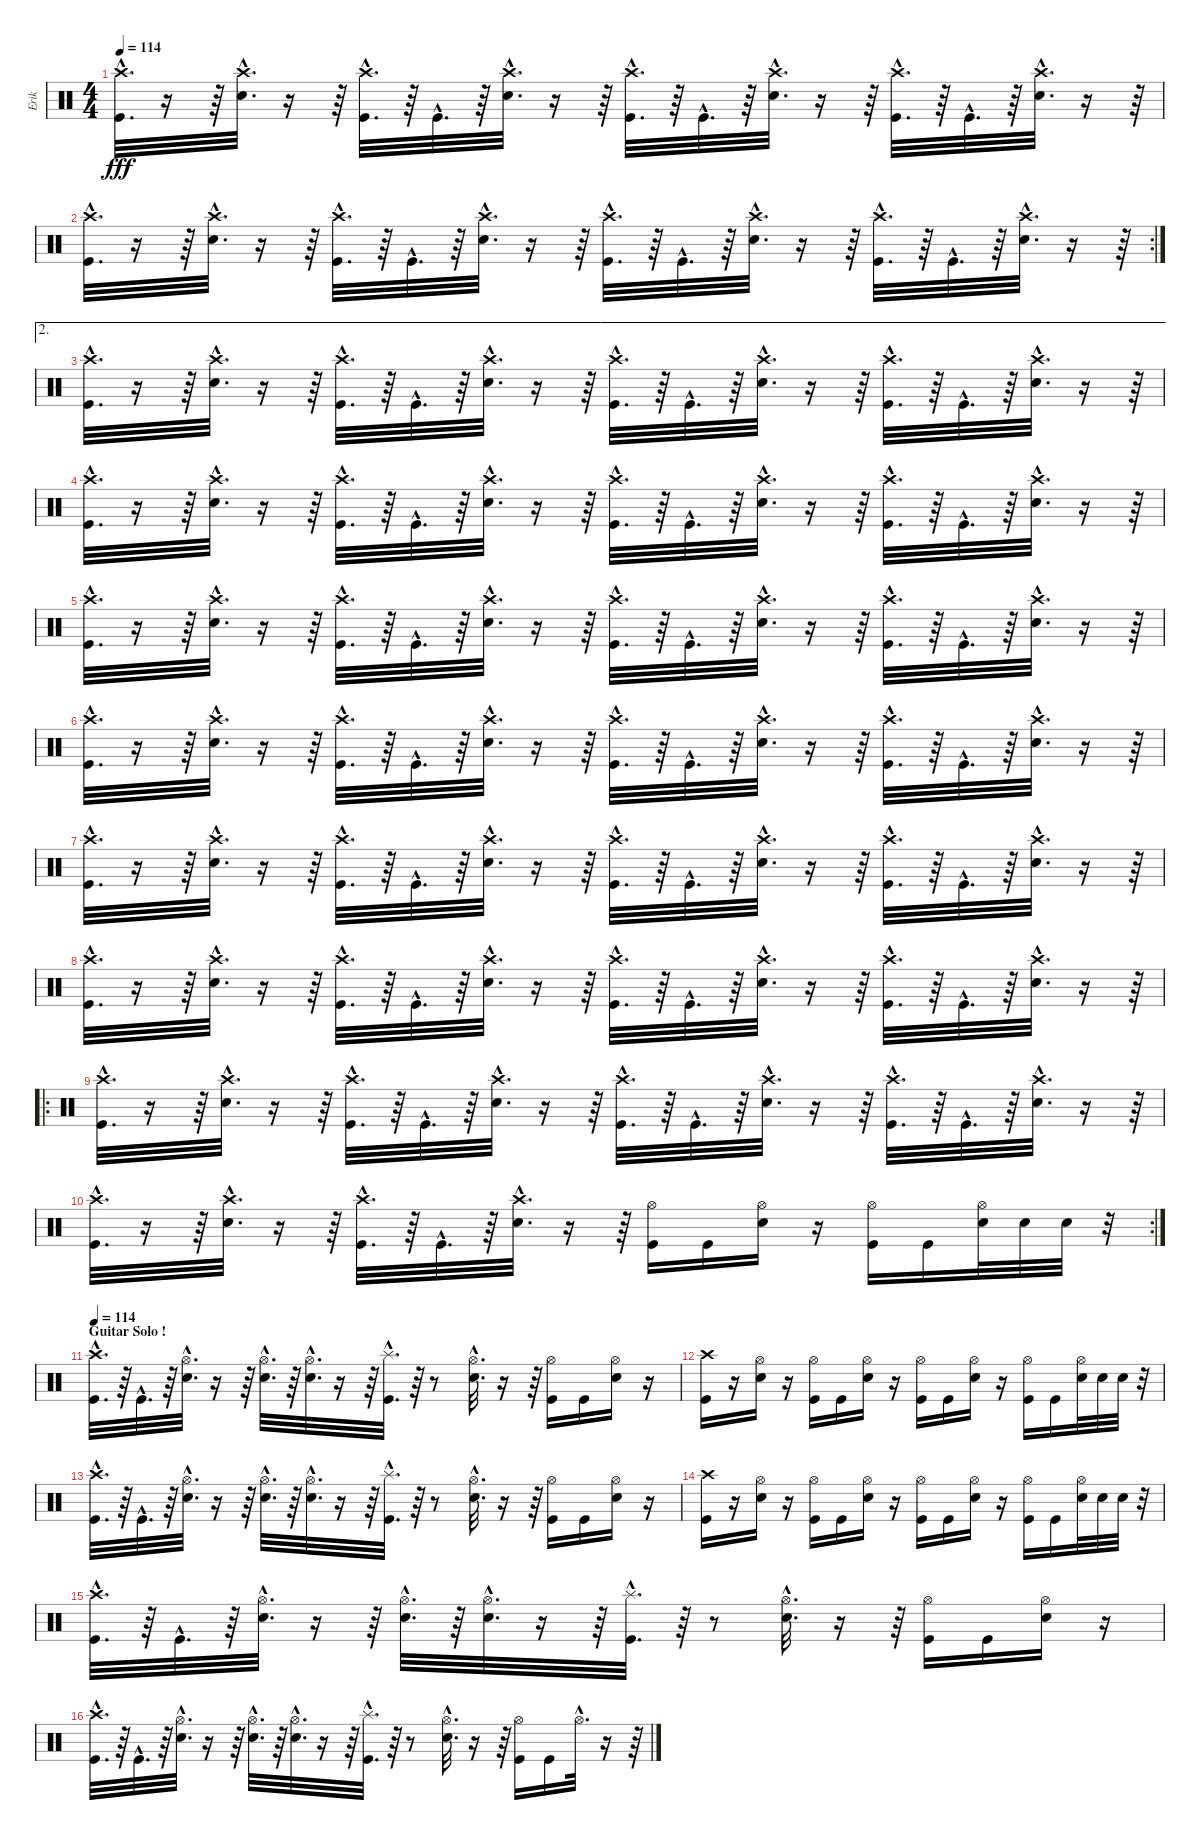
\track ("Erik" "Erik") {instrument percussion}
\staff {score}
\articulation defaults
\ts (4 4)
\tempo 114
\clef neutral
\ks c
("Kick (hit)"{hac} "Crash high (hit)"{hac}).32{d dy fff} r.16 r.64 ("Electric Snare (hit)"{hac} "Crash high (hit)"{hac}).32{d} r.16 r.64 ("Kick (hit)"{hac} "Crash high (hit)"{hac}).32{d} r.64 "Kick (hit)"{hac}.32{d} r.64 ("Electric Snare (hit)"{hac} "Crash high (hit)"{hac}).32{d} r.16 r.64 ("Crash high (hit)"{hac} "Kick (hit)"{hac}).32{d} r.64 "Kick (hit)"{hac}.32{d} r.64 ("Crash high (hit)"{hac} "Electric Snare (hit)"{hac}).32{d} r.16 r.64 ("Crash high (hit)"{hac} "Kick (hit)"{hac}).32{d} r.64 "Kick (hit)"{hac}.32{d} r.64 ("Crash high (hit)"{hac} "Electric Snare (hit)"{hac}).32{d} r.16 r.64 |
\rc 2
("Kick (hit)"{hac} "Crash high (hit)"{hac}).32{d} r.16 r.64 ("Electric Snare (hit)"{hac} "Crash high (hit)"{hac}).32{d} r.16 r.64 ("Kick (hit)"{hac} "Crash high (hit)"{hac}).32{d} r.64 "Kick (hit)"{hac}.32{d} r.64 ("Electric Snare (hit)"{hac} "Crash high (hit)"{hac}).32{d} r.16 r.64 ("Crash high (hit)"{hac} "Kick (hit)"{hac}).32{d} r.64 "Kick (hit)"{hac}.32{d} r.64 ("Crash high (hit)"{hac} "Electric Snare (hit)"{hac}).32{d} r.16 r.64 ("Crash high (hit)"{hac} "Kick (hit)"{hac}).32{d} r.64 "Kick (hit)"{hac}.32{d} r.64 ("Crash high (hit)"{hac} "Electric Snare (hit)"{hac}).32{d} r.16 r.64 |
\ae 2
("Kick (hit)"{hac} "Crash high (hit)"{hac}).32{d} r.16 r.64 ("Electric Snare (hit)"{hac} "Crash high (hit)"{hac}).32{d} r.16 r.64 ("Kick (hit)"{hac} "Crash high (hit)"{hac}).32{d} r.64 "Kick (hit)"{hac}.32{d} r.64 ("Electric Snare (hit)"{hac} "Crash high (hit)"{hac}).32{d} r.16 r.64 ("Crash high (hit)"{hac} "Kick (hit)"{hac}).32{d} r.64 "Kick (hit)"{hac}.32{d} r.64 ("Crash high (hit)"{hac} "Electric Snare (hit)"{hac}).32{d} r.16 r.64 ("Crash high (hit)"{hac} "Kick (hit)"{hac}).32{d} r.64 "Kick (hit)"{hac}.32{d} r.64 ("Crash high (hit)"{hac} "Electric Snare (hit)"{hac}).32{d} r.16 r.64 |
("Kick (hit)"{hac} "Crash high (hit)"{hac}).32{d} r.16 r.64 ("Electric Snare (hit)"{hac} "Crash high (hit)"{hac}).32{d} r.16 r.64 ("Kick (hit)"{hac} "Crash high (hit)"{hac}).32{d} r.64 "Kick (hit)"{hac}.32{d} r.64 ("Electric Snare (hit)"{hac} "Crash high (hit)"{hac}).32{d} r.16 r.64 ("Crash high (hit)"{hac} "Kick (hit)"{hac}).32{d} r.64 "Kick (hit)"{hac}.32{d} r.64 ("Crash high (hit)"{hac} "Electric Snare (hit)"{hac}).32{d} r.16 r.64 ("Crash high (hit)"{hac} "Kick (hit)"{hac}).32{d} r.64 "Kick (hit)"{hac}.32{d} r.64 ("Crash high (hit)"{hac} "Electric Snare (hit)"{hac}).32{d} r.16 r.64 |
("Kick (hit)"{hac} "Crash high (hit)"{hac}).32{d} r.16 r.64 ("Electric Snare (hit)"{hac} "Crash high (hit)"{hac}).32{d} r.16 r.64 ("Kick (hit)"{hac} "Crash high (hit)"{hac}).32{d} r.64 "Kick (hit)"{hac}.32{d} r.64 ("Electric Snare (hit)"{hac} "Crash high (hit)"{hac}).32{d} r.16 r.64 ("Crash high (hit)"{hac} "Kick (hit)"{hac}).32{d} r.64 "Kick (hit)"{hac}.32{d} r.64 ("Crash high (hit)"{hac} "Electric Snare (hit)"{hac}).32{d} r.16 r.64 ("Crash high (hit)"{hac} "Kick (hit)"{hac}).32{d} r.64 "Kick (hit)"{hac}.32{d} r.64 ("Crash high (hit)"{hac} "Electric Snare (hit)"{hac}).32{d} r.16 r.64 |
("Kick (hit)"{hac} "Crash high (hit)"{hac}).32{d} r.16 r.64 ("Electric Snare (hit)"{hac} "Crash high (hit)"{hac}).32{d} r.16 r.64 ("Kick (hit)"{hac} "Crash high (hit)"{hac}).32{d} r.64 "Kick (hit)"{hac}.32{d} r.64 ("Electric Snare (hit)"{hac} "Crash high (hit)"{hac}).32{d} r.16 r.64 ("Crash high (hit)"{hac} "Kick (hit)"{hac}).32{d} r.64 "Kick (hit)"{hac}.32{d} r.64 ("Crash high (hit)"{hac} "Electric Snare (hit)"{hac}).32{d} r.16 r.64 ("Crash high (hit)"{hac} "Kick (hit)"{hac}).32{d} r.64 "Kick (hit)"{hac}.32{d} r.64 ("Crash high (hit)"{hac} "Electric Snare (hit)"{hac}).32{d} r.16 r.64 |
("Kick (hit)"{hac} "Crash high (hit)"{hac}).32{d} r.16 r.64 ("Electric Snare (hit)"{hac} "Crash high (hit)"{hac}).32{d} r.16 r.64 ("Kick (hit)"{hac} "Crash high (hit)"{hac}).32{d} r.64 "Kick (hit)"{hac}.32{d} r.64 ("Electric Snare (hit)"{hac} "Crash high (hit)"{hac}).32{d} r.16 r.64 ("Crash high (hit)"{hac} "Kick (hit)"{hac}).32{d} r.64 "Kick (hit)"{hac}.32{d} r.64 ("Crash high (hit)"{hac} "Electric Snare (hit)"{hac}).32{d} r.16 r.64 ("Crash high (hit)"{hac} "Kick (hit)"{hac}).32{d} r.64 "Kick (hit)"{hac}.32{d} r.64 ("Crash high (hit)"{hac} "Electric Snare (hit)"{hac}).32{d} r.16 r.64 |
("Kick (hit)"{hac} "Crash high (hit)"{hac}).32{d} r.16 r.64 ("Electric Snare (hit)"{hac} "Crash high (hit)"{hac}).32{d} r.16 r.64 ("Kick (hit)"{hac} "Crash high (hit)"{hac}).32{d} r.64 "Kick (hit)"{hac}.32{d} r.64 ("Electric Snare (hit)"{hac} "Crash high (hit)"{hac}).32{d} r.16 r.64 ("Crash high (hit)"{hac} "Kick (hit)"{hac}).32{d} r.64 "Kick (hit)"{hac}.32{d} r.64 ("Crash high (hit)"{hac} "Electric Snare (hit)"{hac}).32{d} r.16 r.64 ("Crash high (hit)"{hac} "Kick (hit)"{hac}).32{d} r.64 "Kick (hit)"{hac}.32{d} r.64 ("Crash high (hit)"{hac} "Electric Snare (hit)"{hac}).32{d} r.16 r.64 |
\ro
("Kick (hit)"{hac} "Crash high (hit)"{hac}).32{d} r.16 r.64 ("Electric Snare (hit)"{hac} "Crash high (hit)"{hac}).32{d} r.16 r.64 ("Kick (hit)"{hac} "Crash high (hit)"{hac}).32{d} r.64 "Kick (hit)"{hac}.32{d} r.64 ("Electric Snare (hit)"{hac} "Crash high (hit)"{hac}).32{d} r.16 r.64 ("Crash high (hit)"{hac} "Kick (hit)"{hac}).32{d} r.64 "Kick (hit)"{hac}.32{d} r.64 ("Crash high (hit)"{hac} "Electric Snare (hit)"{hac}).32{d} r.16 r.64 ("Crash high (hit)"{hac} "Kick (hit)"{hac}).32{d} r.64 "Kick (hit)"{hac}.32{d} r.64 ("Crash high (hit)"{hac} "Electric Snare (hit)"{hac}).32{d} r.16 r.64 |
\rc 2
("Kick (hit)"{hac} "Crash high (hit)"{hac}).32{d} r.16 r.64 ("Electric Snare (hit)"{hac} "Crash high (hit)"{hac}).32{d} r.16 r.64 ("Kick (hit)"{hac} "Crash high (hit)"{hac}).32{d} r.64 "Kick (hit)"{hac}.32{d} r.64 ("Electric Snare (hit)"{hac} "Crash high (hit)"{hac}).32{d} r.16 r.64 ("Kick (hit)" "Hi-Hat (open)").16 "Kick (hit)".16 ("Hi-Hat (open)" "Electric Snare (hit)").16 r.16 ("Hi-Hat (open)" "Kick (hit)").16 "Kick (hit)".16 ("Hi-Hat (open)" "Electric Snare (hit)").32 "Electric Snare (hit)".32 "Electric Snare (hit)".32 r.32 |
\section ("" "Guitar Solo !")
\tempo 114
("Kick (hit)"{hac} "Crash high (hit)"{hac}).32{d} r.64 "Kick (hit)"{hac}.32{d} r.64 ("Electric Snare (hit)"{hac} "Hi-Hat (open)"{hac}).32{d} r.16 r.64 ("Electric Snare (hit)"{hac} "Hi-Hat (open)"{hac}).32{d} r.64 ("Hi-Hat (open)"{hac} "Electric Snare (hit)"{hac}).32{d} r.16 r.64 ("Kick (hit)"{hac} "Splash (hit)"{hac}).32{d} r.64 r.8 ("Electric Snare (hit)"{hac} "Hi-Hat (open)"{hac}).32{d} r.16 r.64 ("Kick (hit)" "Hi-Hat (open)").16 "Kick (hit)".16 ("Electric Snare (hit)" "Hi-Hat (open)").16 r.16 |
("Crash high (hit)" "Kick (hit)").16 r.16 ("Electric Snare (hit)" "Hi-Hat (open)").16 r.16 ("Hi-Hat (open)" "Kick (hit)").16 "Kick (hit)".16 ("Hi-Hat (open)" "Electric Snare (hit)").16 r.16 ("Kick (hit)" "Hi-Hat (open)").16 "Kick (hit)".16 ("Electric Snare (hit)" "Hi-Hat (open)").16 r.16 ("Kick (hit)" "Hi-Hat (open)").16 "Kick (hit)".16 ("Electric Snare (hit)" "Hi-Hat (open)").32 "Electric Snare (hit)".32 "Electric Snare (hit)".32 r.32 |
("Kick (hit)"{hac} "Crash high (hit)"{hac}).32{d} r.64 "Kick (hit)"{hac}.32{d} r.64 ("Electric Snare (hit)"{hac} "Hi-Hat (open)"{hac}).32{d} r.16 r.64 ("Electric Snare (hit)"{hac} "Hi-Hat (open)"{hac}).32{d} r.64 ("Hi-Hat (open)"{hac} "Electric Snare (hit)"{hac}).32{d} r.16 r.64 ("Kick (hit)"{hac} "Splash (hit)"{hac}).32{d} r.64 r.8 ("Electric Snare (hit)"{hac} "Hi-Hat (open)"{hac}).32{d} r.16 r.64 ("Kick (hit)" "Hi-Hat (open)").16 "Kick (hit)".16 ("Electric Snare (hit)" "Hi-Hat (open)").16 r.16 |
("Crash high (hit)" "Kick (hit)").16 r.16 ("Electric Snare (hit)" "Hi-Hat (open)").16 r.16 ("Hi-Hat (open)" "Kick (hit)").16 "Kick (hit)".16 ("Hi-Hat (open)" "Electric Snare (hit)").16 r.16 ("Kick (hit)" "Hi-Hat (open)").16 "Kick (hit)".16 ("Electric Snare (hit)" "Hi-Hat (open)").16 r.16 ("Kick (hit)" "Hi-Hat (open)").16 "Kick (hit)".16 ("Electric Snare (hit)" "Hi-Hat (open)").32 "Electric Snare (hit)".32 "Electric Snare (hit)".32 r.32 |
("Kick (hit)"{hac} "Crash high (hit)"{hac}).32{d} r.64 "Kick (hit)"{hac}.32{d} r.64 ("Electric Snare (hit)"{hac} "Hi-Hat (open)"{hac}).32{d} r.16 r.64 ("Electric Snare (hit)"{hac} "Hi-Hat (open)"{hac}).32{d} r.64 ("Hi-Hat (open)"{hac} "Electric Snare (hit)"{hac}).32{d} r.16 r.64 ("Kick (hit)"{hac} "Splash (hit)"{hac}).32{d} r.64 r.8 ("Electric Snare (hit)"{hac} "Hi-Hat (open)"{hac}).32{d} r.16 r.64 ("Kick (hit)" "Hi-Hat (open)").16 "Kick (hit)".16 ("Electric Snare (hit)" "Hi-Hat (open)").16 r.16 |
("Kick (hit)"{hac} "Crash high (hit)"{hac}).32{d} r.64 "Kick (hit)"{hac}.32{d} r.64 ("Electric Snare (hit)"{hac} "Hi-Hat (open)"{hac}).32{d} r.16 r.64 ("Electric Snare (hit)"{hac} "Hi-Hat (open)"{hac}).32{d} r.64 ("Hi-Hat (open)"{hac} "Electric Snare (hit)"{hac}).32{d} r.16 r.64 ("Kick (hit)"{hac} "Splash (hit)"{hac}).32{d} r.64 r.8 ("Electric Snare (hit)"{hac} "Hi-Hat (open)"{hac}).32{d} r.16 r.64 ("Kick (hit)" "Hi-Hat (open)").16 "Kick (hit)".16 "Hi-Hat (open)"{hac}.32{d} r.16 r.64
